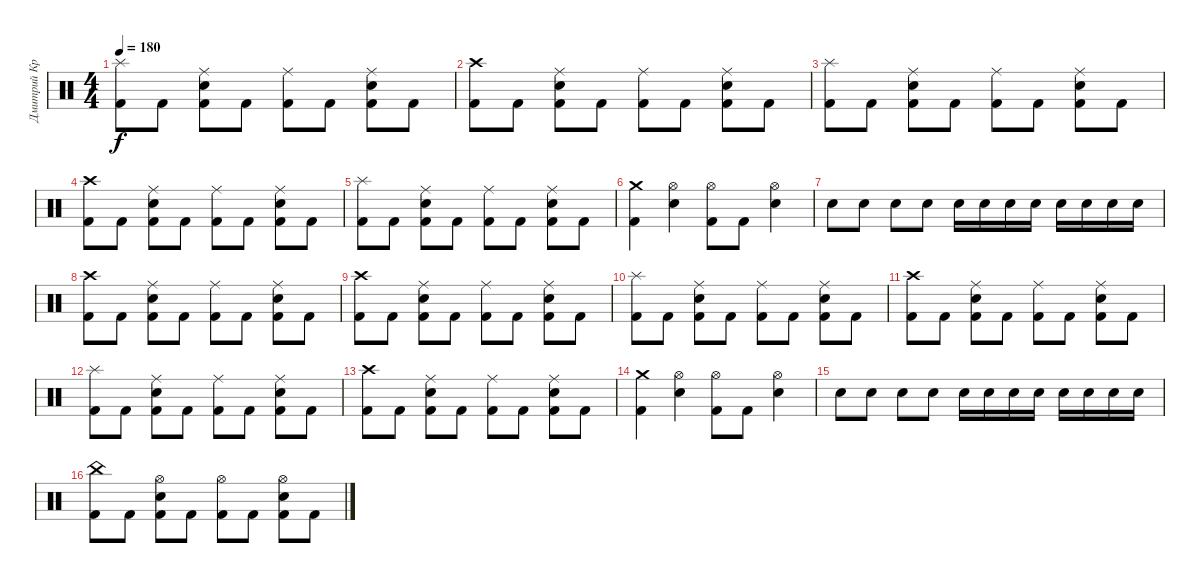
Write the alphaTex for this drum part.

\track ("Дмитрий Кривенков" "Дмитрий Кр") {instrument percussion}
\staff {score}
\articulation defaults
\ts (4 4)
\tempo 180
\clef neutral
\ks c
("Kick (hit) 2" "Splash (hit)").8{dy f} "Kick (hit) 2".8 ("Kick (hit) 2" "Electric Snare (hit)" "Ride (middle)").8 "Kick (hit) 2".8 ("Ride (middle)" "Kick (hit) 2").8 "Kick (hit) 2".8 ("Ride (middle)" "Electric Snare (hit)" "Kick (hit) 2").8 "Kick (hit) 2".8 |
("Kick (hit) 2" "Crash high (hit)").8 "Kick (hit) 2".8 ("Kick (hit) 2" "Electric Snare (hit)" "Ride (middle)").8 "Kick (hit) 2".8 ("Kick (hit) 2" "Ride (middle)").8 "Kick (hit) 2".8 ("Ride (middle)" "Electric Snare (hit)" "Kick (hit) 2").8 "Kick (hit) 2".8 |
("Kick (hit) 2" "Splash (hit)").8 "Kick (hit) 2".8 ("Kick (hit) 2" "Electric Snare (hit)" "Ride (middle)").8 "Kick (hit) 2".8 ("Ride (middle)" "Kick (hit) 2").8 "Kick (hit) 2".8 ("Ride (middle)" "Electric Snare (hit)" "Kick (hit) 2").8 "Kick (hit) 2".8 |
("Kick (hit) 2" "Crash high (hit)").8 "Kick (hit) 2".8 ("Kick (hit) 2" "Electric Snare (hit)" "Ride (middle)").8 "Kick (hit) 2".8 ("Kick (hit) 2" "Ride (middle)").8 "Kick (hit) 2".8 ("Ride (middle)" "Electric Snare (hit)" "Kick (hit) 2").8 "Kick (hit) 2".8 |
("Kick (hit) 2" "Splash (hit)").8 "Kick (hit) 2".8 ("Kick (hit) 2" "Electric Snare (hit)" "Ride (middle)").8 "Kick (hit) 2".8 ("Ride (middle)" "Kick (hit) 2").8 "Kick (hit) 2".8 ("Ride (middle)" "Electric Snare (hit)" "Kick (hit) 2").8 "Kick (hit) 2".8 |
("Crash medium (hit)" "Kick (hit) 2").4 ("Electric Snare (hit)" "Hi-Hat (open)").4 ("Kick (hit) 2" "Hi-Hat (open)").8 "Kick (hit) 2".8 ("Electric Snare (hit)" "Hi-Hat (open)").4 |
"Electric Snare (hit)".8 "Electric Snare (hit)".8 "Electric Snare (hit)".8 "Electric Snare (hit)".8 "Snare (hit) 2".16 "Snare (hit) 2".16 "Snare (hit) 2".16 "Snare (hit) 2".16 "Snare (hit) 2".16 "Snare (hit) 2".16 "Snare (hit) 2".16 "Electric Snare (hit)".16 |
("Kick (hit) 2" "Crash high (hit)").8 "Kick (hit) 2".8 ("Kick (hit) 2" "Electric Snare (hit)" "Ride (middle)").8 "Kick (hit) 2".8 ("Kick (hit) 2" "Ride (middle)").8 "Kick (hit) 2".8 ("Ride (middle)" "Electric Snare (hit)" "Kick (hit) 2").8 "Kick (hit) 2".8 |
("Kick (hit) 2" "Crash high (hit)").8 "Kick (hit) 2".8 ("Kick (hit) 2" "Electric Snare (hit)" "Ride (middle)").8 "Kick (hit) 2".8 ("Kick (hit) 2" "Ride (middle)").8 "Kick (hit) 2".8 ("Ride (middle)" "Electric Snare (hit)" "Kick (hit) 2").8 "Kick (hit) 2".8 |
("Kick (hit) 2" "Splash (hit)").8 "Kick (hit) 2".8 ("Kick (hit) 2" "Electric Snare (hit)" "Ride (middle)").8 "Kick (hit) 2".8 ("Ride (middle)" "Kick (hit) 2").8 "Kick (hit) 2".8 ("Ride (middle)" "Electric Snare (hit)" "Kick (hit) 2").8 "Kick (hit) 2".8 |
("Kick (hit) 2" "Crash high (hit)").8 "Kick (hit) 2".8 ("Kick (hit) 2" "Electric Snare (hit)" "Ride (middle)").8 "Kick (hit) 2".8 ("Kick (hit) 2" "Ride (middle)").8 "Kick (hit) 2".8 ("Ride (middle)" "Electric Snare (hit)" "Kick (hit) 2").8 "Kick (hit) 2".8 |
("Kick (hit) 2" "Splash (hit)").8 "Kick (hit) 2".8 ("Kick (hit) 2" "Electric Snare (hit)" "Ride (middle)").8 "Kick (hit) 2".8 ("Ride (middle)" "Kick (hit) 2").8 "Kick (hit) 2".8 ("Ride (middle)" "Electric Snare (hit)" "Kick (hit) 2").8 "Kick (hit) 2".8 |
("Kick (hit) 2" "Crash high (hit)").8 "Kick (hit) 2".8 ("Kick (hit) 2" "Electric Snare (hit)" "Ride (middle)").8 "Kick (hit) 2".8 ("Kick (hit) 2" "Ride (middle)").8 "Kick (hit) 2".8 ("Ride (middle)" "Electric Snare (hit)" "Kick (hit) 2").8 "Kick (hit) 2".8 |
("Crash medium (hit)" "Kick (hit) 2").4 ("Electric Snare (hit)" "Hi-Hat (open)").4 ("Kick (hit) 2" "Hi-Hat (open)").8 "Kick (hit) 2".8 ("Electric Snare (hit)" "Hi-Hat (open)").4 |
"Electric Snare (hit)".8 "Electric Snare (hit)".8 "Electric Snare (hit)".8 "Electric Snare (hit)".8 "Snare (hit) 2".16 "Snare (hit) 2".16 "Snare (hit) 2".16 "Snare (hit) 2".16 "Snare (hit) 2".16 "Snare (hit) 2".16 "Snare (hit) 2".16 "Electric Snare (hit)".16 |
("China (hit)" "Kick (hit) 2").8 "Kick (hit) 2".8 ("Hi-Hat (open)" "Electric Snare (hit)" "Kick (hit) 2").8 "Kick (hit) 2".8 ("Kick (hit) 2" "Hi-Hat (open)").8 "Kick (hit) 2".8 ("Kick (hit) 2" "Electric Snare (hit)" "Hi-Hat (open)").8 "Kick (hit) 2".8
